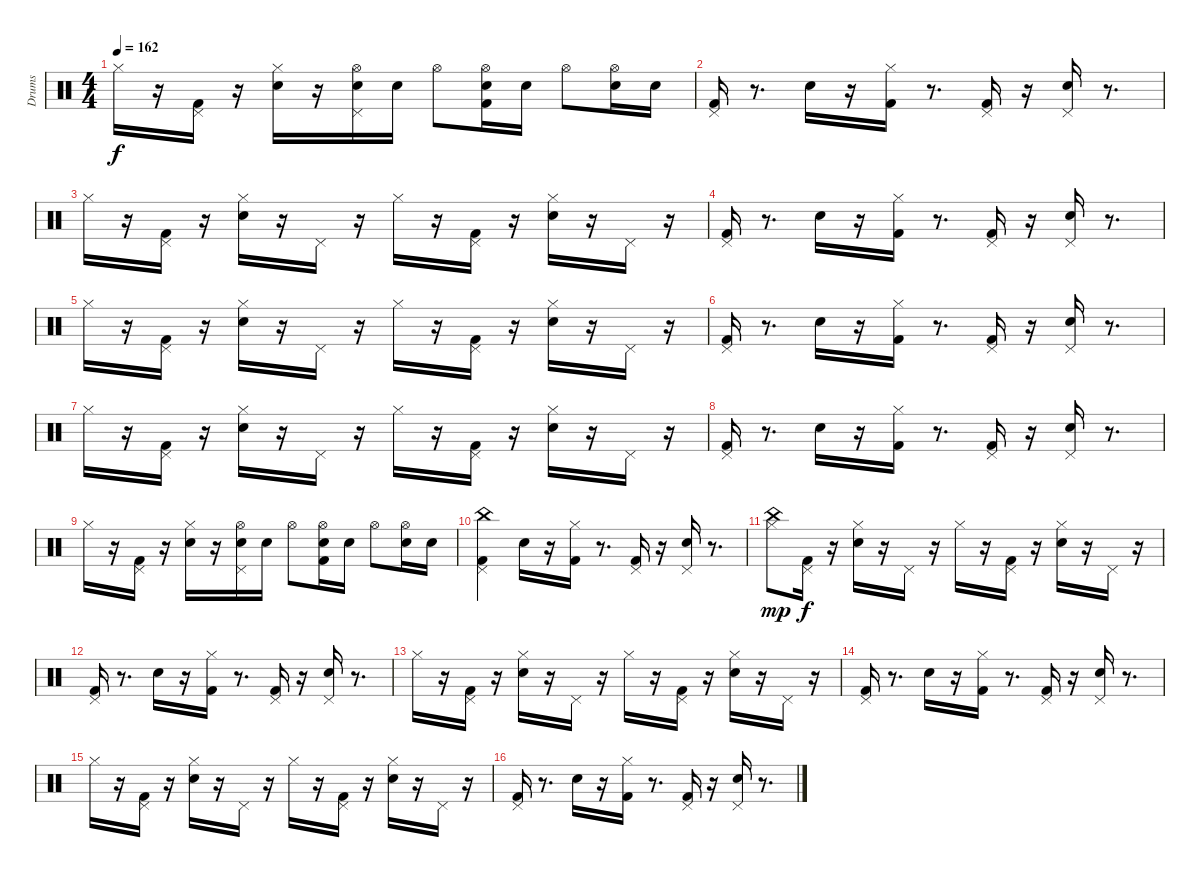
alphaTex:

\track ("Drums" "Drums") {instrument percussion}
\staff {score}
\articulation defaults
\ts (4 4)
\tempo 162
\clef neutral
\ks c "Hi-Hat (closed)".16{dy f}
r.16 ("Kick (hit) 2" "Pedal Hi-Hat (hit)").16 r.16 ("Electric Snare (hit)" "Hi-Hat (closed)").16 r.16 ("Hi-Hat (open)" "Electric Snare (hit)" "Pedal Hi-Hat (hit)").16 "Electric Snare (hit)".16 "Hi-Hat (open)".8 ("Hi-Hat (open)" "Electric Snare (hit)" "Kick (hit) 2").16 "Electric Snare (hit)".16 "Hi-Hat (open)".8 ("Hi-Hat (open)" "Electric Snare (hit)").16 "Electric Snare (hit)".16 |
("Kick (hit) 2" "Pedal Hi-Hat (hit)").16 r.8{d} "Electric Snare (hit)".16 r.16 ("Kick (hit) 2" "Hi-Hat (closed)").16 r.8{d} ("Kick (hit) 2" "Pedal Hi-Hat (hit)").16 r.16 ("Pedal Hi-Hat (hit)" "Electric Snare (hit)").16 r.8{d} |
"Hi-Hat (closed)".16 r.16 ("Kick (hit) 2" "Pedal Hi-Hat (hit)").16 r.16 ("Electric Snare (hit)" "Hi-Hat (closed)").16 r.16 "Pedal Hi-Hat (hit)".16 r.16 "Hi-Hat (closed)".16 r.16 ("Kick (hit) 2" "Pedal Hi-Hat (hit)").16 r.16 ("Electric Snare (hit)" "Hi-Hat (closed)").16 r.16 "Pedal Hi-Hat (hit)".16 r.16 |
("Kick (hit) 2" "Pedal Hi-Hat (hit)").16 r.8{d} "Electric Snare (hit)".16 r.16 ("Kick (hit) 2" "Hi-Hat (closed)").16 r.8{d} ("Kick (hit) 2" "Pedal Hi-Hat (hit)").16 r.16 ("Pedal Hi-Hat (hit)" "Electric Snare (hit)").16 r.8{d} |
"Hi-Hat (closed)".16 r.16 ("Kick (hit) 2" "Pedal Hi-Hat (hit)").16 r.16 ("Electric Snare (hit)" "Hi-Hat (closed)").16 r.16 "Pedal Hi-Hat (hit)".16 r.16 "Hi-Hat (closed)".16 r.16 ("Kick (hit) 2" "Pedal Hi-Hat (hit)").16 r.16 ("Electric Snare (hit)" "Hi-Hat (closed)").16 r.16 "Pedal Hi-Hat (hit)".16 r.16 |
("Kick (hit) 2" "Pedal Hi-Hat (hit)").16 r.8{d} "Electric Snare (hit)".16 r.16 ("Kick (hit) 2" "Hi-Hat (closed)").16 r.8{d} ("Kick (hit) 2" "Pedal Hi-Hat (hit)").16 r.16 ("Pedal Hi-Hat (hit)" "Electric Snare (hit)").16 r.8{d} |
"Hi-Hat (closed)".16 r.16 ("Kick (hit) 2" "Pedal Hi-Hat (hit)").16 r.16 ("Electric Snare (hit)" "Hi-Hat (closed)").16 r.16 "Pedal Hi-Hat (hit)".16 r.16 "Hi-Hat (closed)".16 r.16 ("Kick (hit) 2" "Pedal Hi-Hat (hit)").16 r.16 ("Electric Snare (hit)" "Hi-Hat (closed)").16 r.16 "Pedal Hi-Hat (hit)".16 r.16 |
("Kick (hit) 2" "Pedal Hi-Hat (hit)").16 r.8{d} "Electric Snare (hit)".16 r.16 ("Kick (hit) 2" "Hi-Hat (closed)").16 r.8{d} ("Kick (hit) 2" "Pedal Hi-Hat (hit)").16 r.16 ("Pedal Hi-Hat (hit)" "Electric Snare (hit)").16 r.8{d} |
"Hi-Hat (closed)".16 r.16 ("Kick (hit) 2" "Pedal Hi-Hat (hit)").16 r.16 ("Electric Snare (hit)" "Hi-Hat (closed)").16 r.16 ("Hi-Hat (open)" "Electric Snare (hit)" "Pedal Hi-Hat (hit)").16 "Electric Snare (hit)".16 "Hi-Hat (open)".8 ("Hi-Hat (open)" "Electric Snare (hit)" "Kick (hit) 2").16 "Electric Snare (hit)".16 "Hi-Hat (open)".8 ("Hi-Hat (open)" "Electric Snare (hit)").16 "Electric Snare (hit)".16 |
("China (hit)" "Kick (hit) 2" "Pedal Hi-Hat (hit)").4 "Electric Snare (hit)".16 r.16 ("Kick (hit) 2" "Hi-Hat (closed)").16 r.8{d} ("Kick (hit) 2" "Pedal Hi-Hat (hit)").16 r.16 ("Pedal Hi-Hat (hit)" "Electric Snare (hit)").16 r.8{d} |
("China (hit)" "Hi-Hat (closed)").8{dy mp} ("Kick (hit) 2" "Pedal Hi-Hat (hit)").16{dy f} r.16 ("Electric Snare (hit)" "Hi-Hat (closed)").16 r.16 "Pedal Hi-Hat (hit)".16 r.16 "Hi-Hat (closed)".16 r.16 ("Kick (hit) 2" "Pedal Hi-Hat (hit)").16 r.16 ("Electric Snare (hit)" "Hi-Hat (closed)").16 r.16 "Pedal Hi-Hat (hit)".16 r.16 |
("Kick (hit) 2" "Pedal Hi-Hat (hit)").16 r.8{d} "Electric Snare (hit)".16 r.16 ("Kick (hit) 2" "Hi-Hat (closed)").16 r.8{d} ("Kick (hit) 2" "Pedal Hi-Hat (hit)").16 r.16 ("Pedal Hi-Hat (hit)" "Electric Snare (hit)").16 r.8{d} |
"Hi-Hat (closed)".16 r.16 ("Kick (hit) 2" "Pedal Hi-Hat (hit)").16 r.16 ("Electric Snare (hit)" "Hi-Hat (closed)").16 r.16 "Pedal Hi-Hat (hit)".16 r.16 "Hi-Hat (closed)".16 r.16 ("Kick (hit) 2" "Pedal Hi-Hat (hit)").16 r.16 ("Electric Snare (hit)" "Hi-Hat (closed)").16 r.16 "Pedal Hi-Hat (hit)".16 r.16 |
("Kick (hit) 2" "Pedal Hi-Hat (hit)").16 r.8{d} "Electric Snare (hit)".16 r.16 ("Kick (hit) 2" "Hi-Hat (closed)").16 r.8{d} ("Kick (hit) 2" "Pedal Hi-Hat (hit)").16 r.16 ("Pedal Hi-Hat (hit)" "Electric Snare (hit)").16 r.8{d} |
"Hi-Hat (closed)".16 r.16 ("Kick (hit) 2" "Pedal Hi-Hat (hit)").16 r.16 ("Electric Snare (hit)" "Hi-Hat (closed)").16 r.16 "Pedal Hi-Hat (hit)".16 r.16 "Hi-Hat (closed)".16 r.16 ("Kick (hit) 2" "Pedal Hi-Hat (hit)").16 r.16 ("Electric Snare (hit)" "Hi-Hat (closed)").16 r.16 "Pedal Hi-Hat (hit)".16 r.16 |
("Kick (hit) 2" "Pedal Hi-Hat (hit)").16 r.8{d} "Electric Snare (hit)".16 r.16 ("Kick (hit) 2" "Hi-Hat (closed)").16 r.8{d} ("Kick (hit) 2" "Pedal Hi-Hat (hit)").16 r.16 ("Pedal Hi-Hat (hit)" "Electric Snare (hit)").16 r.8{d}
